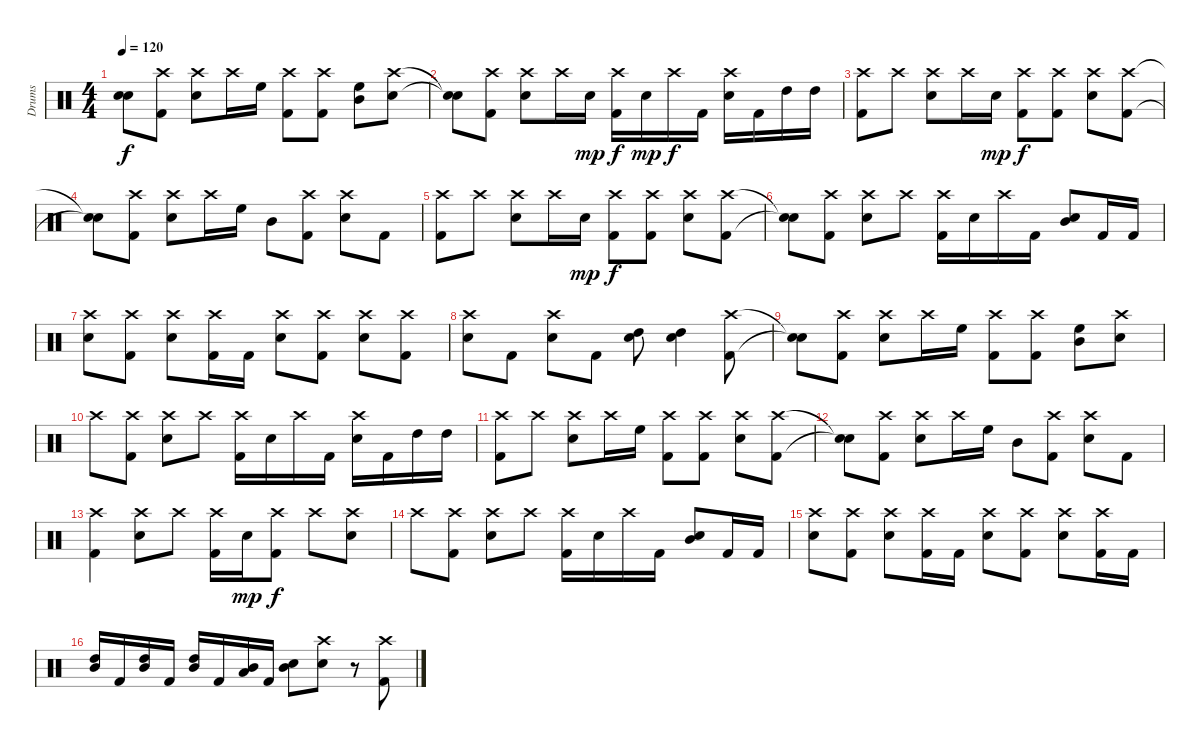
\track ("Drums" "Drums") {instrument percussion}
\staff {score}
\articulation defaults
\ts (4 4)
\tempo 120
\clef neutral
\ks c
("Snare (hit)"{t} "Snare (hit)"{t}).8{dy f} ("Crash high (hit)" "Kick (hit) 2").8 ("Crash high (hit)" "Electric Snare (hit)").8 "Crash high (hit)".16 "High Floor Tom (hit)".16 ("Crash high (hit)" "Kick (hit) 2").8 ("Crash high (hit)" "Kick (hit) 2").8 ("High Floor Tom (hit)" "Mid Tom (hit)").8 ("Crash high (hit)" "Electric Snare (hit)").8 |
("Snare (hit)"{t} "Snare (hit)"{t}).8 ("Crash high (hit)" "Kick (hit) 2").8 ("Crash high (hit)" "Electric Snare (hit)").8 "Crash high (hit)".16 "Electric Snare (hit)".16{dy mp} ("Crash high (hit)" "Kick (hit) 2").16{dy f} "Electric Snare (hit)".16{dy mp} "Crash high (hit)".16{dy f} "Kick (hit) 2".16 ("Crash high (hit)" "Electric Snare (hit)").16 "Kick (hit) 2".16 "High Tom (hit)".16 "High Tom (hit)".16 |
("Crash high (hit)" "Kick (hit) 2").8 "Crash high (hit)".8 ("Crash high (hit)" "Electric Snare (hit)").8 "Crash high (hit)".16 "Electric Snare (hit)".16{dy mp} ("Crash high (hit)" "Kick (hit) 2").8{dy f} ("Crash high (hit)" "Kick (hit) 2").8 ("Crash high (hit)" "Electric Snare (hit)").8 ("Crash high (hit)" "Kick (hit) 2").8 |
("Snare (hit)"{t} "Snare (hit)"{t}).8 ("Crash high (hit)" "Kick (hit) 2").8 ("Crash high (hit)" "Electric Snare (hit)").8 "Crash high (hit)".16 "High Floor Tom (hit)".16 "Mid Tom (hit)".8 ("Crash high (hit)" "Kick (hit) 2").8 ("Crash high (hit)" "Electric Snare (hit)").8 "Kick (hit) 2".8 |
("Crash high (hit)" "Kick (hit) 2").8 "Crash high (hit)".8 ("Crash high (hit)" "Electric Snare (hit)").8 "Crash high (hit)".16 "Electric Snare (hit)".16{dy mp} ("Crash high (hit)" "Kick (hit) 2").8{dy f} ("Crash high (hit)" "Kick (hit) 2").8 ("Crash high (hit)" "Electric Snare (hit)").8 ("Crash high (hit)" "Kick (hit) 2").8 |
("Snare (hit)"{t} "Snare (hit)"{t}).8 ("Crash high (hit)" "Kick (hit) 2").8 ("Crash high (hit)" "Electric Snare (hit)").8 "Crash high (hit)".8 ("Crash high (hit)" "Kick (hit) 2").16 "Electric Snare (hit)".16 "Crash high (hit)".16 "Kick (hit) 2".16 ("Mid Tom (hit)" "Electric Snare (hit)").8 "Kick (hit) 2".16 "Kick (hit) 2".16 |
("Crash high (hit)" "Electric Snare (hit)").8 ("Crash high (hit)" "Kick (hit) 2").8 ("Crash high (hit)" "Electric Snare (hit)").8 ("Crash high (hit)" "Kick (hit) 2").16 "Kick (hit) 2".16 ("Crash high (hit)" "Electric Snare (hit)").8 ("Crash high (hit)" "Kick (hit) 2").8 ("Crash high (hit)" "Electric Snare (hit)").8 ("Crash high (hit)" "Kick (hit) 2").8 |
("Crash high (hit)" "Electric Snare (hit)").8 "Kick (hit) 2".8 ("Crash high (hit)" "Electric Snare (hit)").8 "Kick (hit) 2".8 ("Electric Snare (hit)" "High Tom (hit)").8 ("Electric Snare (hit)" "High Tom (hit)").4 ("Crash high (hit)" "Kick (hit) 2").8 |
("Snare (hit)"{t} "Snare (hit)"{t}).8 ("Crash high (hit)" "Kick (hit) 2").8 ("Crash high (hit)" "Electric Snare (hit)").8 "Crash high (hit)".16 "High Floor Tom (hit)".16 ("Crash high (hit)" "Kick (hit) 2").8 ("Crash high (hit)" "Kick (hit) 2").8 ("High Floor Tom (hit)" "Mid Tom (hit)").8 ("Crash high (hit)" "Electric Snare (hit)").8 |
"Crash high (hit)".8 ("Crash high (hit)" "Kick (hit) 2").8 ("Crash high (hit)" "Electric Snare (hit)").8 "Crash high (hit)".8 ("Crash high (hit)" "Kick (hit) 2").16 "Electric Snare (hit)".16 "Crash high (hit)".16 "Kick (hit) 2".16 ("Crash high (hit)" "Electric Snare (hit)").16 "Kick (hit) 2".16 "High Tom (hit)".16 "High Tom (hit)".16 |
("Crash high (hit)" "Kick (hit) 2").8 "Crash high (hit)".8 ("Crash high (hit)" "Electric Snare (hit)").8 "Crash high (hit)".16 "High Floor Tom (hit)".16 ("Crash high (hit)" "Kick (hit) 2").8 ("Crash high (hit)" "Kick (hit) 2").8 ("Crash high (hit)" "Electric Snare (hit)").8 ("Crash high (hit)" "Kick (hit) 2").8 |
("Snare (hit)"{t} "Snare (hit)"{t}).8 ("Crash high (hit)" "Kick (hit) 2").8 ("Crash high (hit)" "Electric Snare (hit)").8 "Crash high (hit)".16 "High Floor Tom (hit)".16 "Mid Tom (hit)".8 ("Crash high (hit)" "Kick (hit) 2").8 ("Crash high (hit)" "Electric Snare (hit)").8 "Kick (hit) 2".8 |
("Crash high (hit)" "Kick (hit) 2").4 ("Crash high (hit)" "Electric Snare (hit)").8 "Crash high (hit)".8 ("Crash high (hit)" "Kick (hit) 2").16 "Electric Snare (hit)".16{dy mp} ("Crash high (hit)" "Kick (hit) 2").8{dy f} "Crash high (hit)".8 ("Crash high (hit)" "Electric Snare (hit)").8 |
"Crash high (hit)".8 ("Crash high (hit)" "Kick (hit) 2").8 ("Crash high (hit)" "Electric Snare (hit)").8 "Crash high (hit)".8 ("Crash high (hit)" "Kick (hit) 2").16 "Electric Snare (hit)".16 "Crash high (hit)".16 "Kick (hit) 2".16 ("Mid Tom (hit)" "Electric Snare (hit)").8 "Kick (hit) 2".16 "Kick (hit) 2".16 |
("Crash high (hit)" "Electric Snare (hit)").8 ("Crash high (hit)" "Kick (hit) 2").8 ("Crash high (hit)" "Electric Snare (hit)").8 ("Crash high (hit)" "Kick (hit) 2").16 "Kick (hit) 2".16 ("Crash high (hit)" "Electric Snare (hit)").8 ("Crash high (hit)" "Kick (hit) 2").8 ("Crash high (hit)" "Electric Snare (hit)").8 ("Crash high (hit)" "Kick (hit) 2").16 "Kick (hit) 2".16 |
("Mid Tom (hit)" "High Tom (hit)").16 "Kick (hit) 2".16 ("Mid Tom (hit)" "High Tom (hit)").16 "Kick (hit) 2".16 ("Mid Tom (hit)" "High Tom (hit)").16 "Kick (hit) 2".16 ("Mid Tom (hit)" "Low Floor Tom (hit)").16 "Kick (hit) 2".16 ("Mid Tom (hit)" "Electric Snare (hit)").8 ("Crash high (hit)" "Electric Snare (hit)").8 r.8 ("Crash high (hit)" "Kick (hit) 2").8
